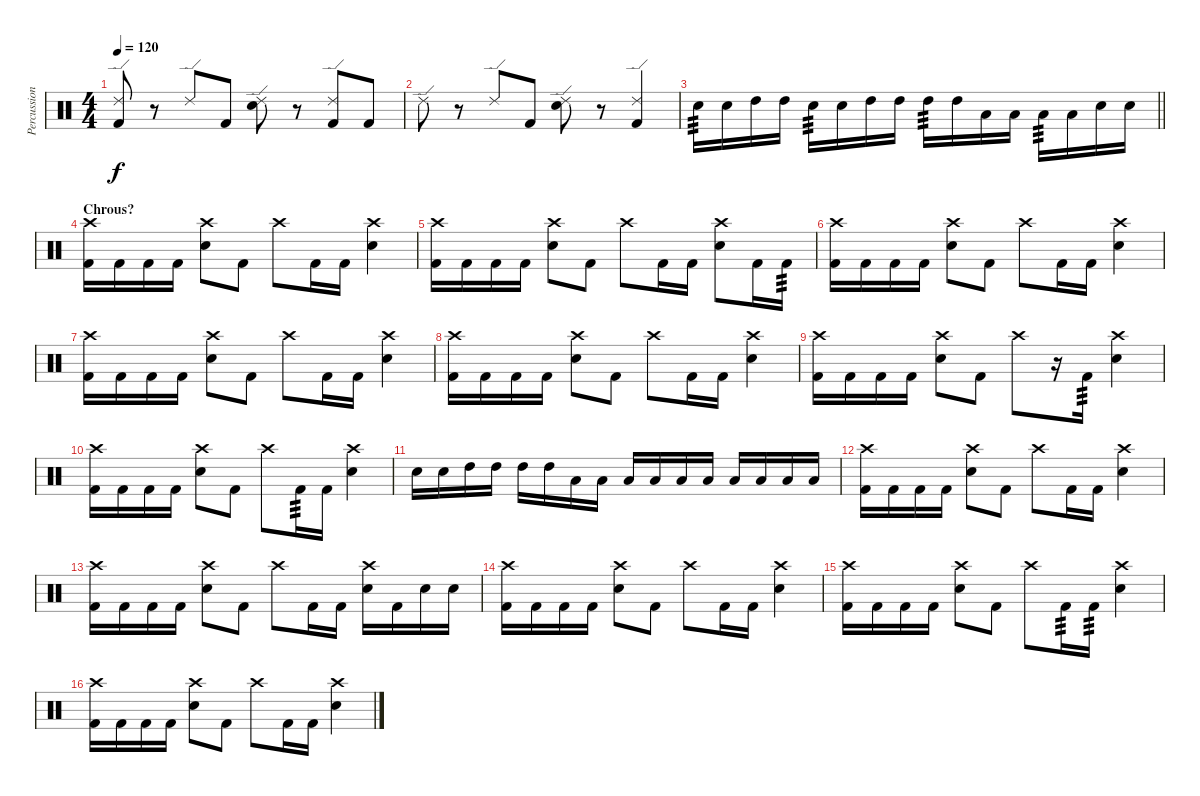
\track ("Percussion" "Percussion") {instrument percussion}
\staff {score}
\articulation defaults
\ts (4 4)
\tempo 120
\clef neutral
\ks c
("Ride (edge) 2" "Kick (hit) 2").8{dy f} r.8 "Ride (edge) 2".8 "Kick (hit) 2".8 ("Ride (edge) 2" "Electric Snare (hit)").8 r.8 ("Ride (edge) 2" "Kick (hit) 2").8 "Kick (hit) 2".8 |
"Ride (edge) 2".8 r.8 "Ride (edge) 2".8 "Kick (hit) 2".8 ("Ride (edge) 2" "Electric Snare (hit)").8 r.8 ("Ride (edge) 2" "Kick (hit) 2").4 |
\barLineRight lightlight "Electric Snare (hit)".16{tp 3} "Electric Snare (hit)".16 "High Tom (hit)".16 "High Tom (hit)".16 "Electric Snare (hit)".16{tp 3} "Electric Snare (hit)".16 "High Tom (hit)".16 "High Tom (hit)".16 "High Tom (hit)".16{tp 3} "High Tom (hit)".16 "Low Tom (hit)".16 "Low Tom (hit)".16 "Low Floor Tom (hit)".16{tp 3} "Low Floor Tom (hit)".16 "Electric Snare (hit)".16 "Electric Snare (hit)".16
|
\section ("" "Chrous?")
("Crash high (hit)" "Kick (hit) 2").16 "Kick (hit) 2".16 "Kick (hit) 2".16 "Kick (hit) 2".16 ("Crash high (hit)" "Electric Snare (hit)").8 "Kick (hit) 2".8 "Crash high (hit)".8 "Kick (hit) 2".16 "Kick (hit) 2".16 ("Crash high (hit)" "Electric Snare (hit)").4 |
("Crash high (hit)" "Kick (hit) 2").16 "Kick (hit) 2".16 "Kick (hit) 2".16 "Kick (hit) 2".16 ("Crash high (hit)" "Electric Snare (hit)").8 "Kick (hit) 2".8 "Crash high (hit)".8 "Kick (hit) 2".16 "Kick (hit) 2".16 ("Crash high (hit)" "Electric Snare (hit)").8 "Kick (hit) 2".16 "Kick (hit) 2".16{tp 3} |
("Crash high (hit)" "Kick (hit) 2").16 "Kick (hit) 2".16 "Kick (hit) 2".16 "Kick (hit) 2".16 ("Crash high (hit)" "Electric Snare (hit)").8 "Kick (hit) 2".8 "Crash high (hit)".8 "Kick (hit) 2".16 "Kick (hit) 2".16 ("Crash high (hit)" "Electric Snare (hit)").4 |
("Crash high (hit)" "Kick (hit) 2").16 "Kick (hit) 2".16 "Kick (hit) 2".16 "Kick (hit) 2".16 ("Crash high (hit)" "Electric Snare (hit)").8 "Kick (hit) 2".8 "Crash high (hit)".8 "Kick (hit) 2".16 "Kick (hit) 2".16 ("Crash high (hit)" "Electric Snare (hit)").4 |
("Crash high (hit)" "Kick (hit) 2").16 "Kick (hit) 2".16 "Kick (hit) 2".16 "Kick (hit) 2".16 ("Crash high (hit)" "Electric Snare (hit)").8 "Kick (hit) 2".8 "Crash high (hit)".8 "Kick (hit) 2".16 "Kick (hit) 2".16 ("Crash high (hit)" "Electric Snare (hit)").4 |
("Crash high (hit)" "Kick (hit) 2").16 "Kick (hit) 2".16 "Kick (hit) 2".16 "Kick (hit) 2".16 ("Crash high (hit)" "Electric Snare (hit)").8 "Kick (hit) 2".8 "Crash high (hit)".8 r.16 "Kick (hit) 2".16{tp 3} ("Crash high (hit)" "Electric Snare (hit)").4 |
("Crash high (hit)" "Kick (hit) 2").16 "Kick (hit) 2".16 "Kick (hit) 2".16 "Kick (hit) 2".16 ("Crash high (hit)" "Electric Snare (hit)").8 "Kick (hit) 2".8 "Crash high (hit)".8 "Kick (hit) 2".16{tp 3} "Kick (hit) 2".16 ("Crash high (hit)" "Electric Snare (hit)").4 |
"Electric Snare (hit)".16 "Electric Snare (hit)".16 "High Tom (hit)".16 "High Tom (hit)".16 "High Tom (hit)".16 "High Tom (hit)".16 "Low Tom (hit)".16 "Low Tom (hit)".16 "Low Tom (hit)".16 "Low Tom (hit)".16 "Low Floor Tom (hit)".16 "Low Floor Tom (hit)".16 "Low Floor Tom (hit)".16 "Low Floor Tom (hit)".16 "Low Floor Tom (hit)".16 "Low Floor Tom (hit)".16 |
("Crash high (hit)" "Kick (hit) 2").16 "Kick (hit) 2".16 "Kick (hit) 2".16 "Kick (hit) 2".16 ("Crash high (hit)" "Electric Snare (hit)").8 "Kick (hit) 2".8 "Crash high (hit)".8 "Kick (hit) 2".16 "Kick (hit) 2".16 ("Crash high (hit)" "Electric Snare (hit)").4 |
("Crash high (hit)" "Kick (hit) 2").16 "Kick (hit) 2".16 "Kick (hit) 2".16 "Kick (hit) 2".16 ("Crash high (hit)" "Electric Snare (hit)").8 "Kick (hit) 2".8 "Crash high (hit)".8 "Kick (hit) 2".16 "Kick (hit) 2".16 ("Crash high (hit)" "Electric Snare (hit)").16 "Kick (hit) 2".16 "Electric Snare (hit)".16 "Electric Snare (hit)".16 |
("Crash high (hit)" "Kick (hit) 2").16 "Kick (hit) 2".16 "Kick (hit) 2".16 "Kick (hit) 2".16 ("Crash high (hit)" "Electric Snare (hit)").8 "Kick (hit) 2".8 "Crash high (hit)".8 "Kick (hit) 2".16 "Kick (hit) 2".16 ("Crash high (hit)" "Electric Snare (hit)").4 |
("Crash high (hit)" "Kick (hit) 2").16 "Kick (hit) 2".16 "Kick (hit) 2".16 "Kick (hit) 2".16 ("Crash high (hit)" "Electric Snare (hit)").8 "Kick (hit) 2".8 "Crash high (hit)".8 "Kick (hit) 2".16{tp 3} "Kick (hit) 2".16{tp 3} ("Crash high (hit)" "Electric Snare (hit)").4 |
("Crash high (hit)" "Kick (hit) 2").16 "Kick (hit) 2".16 "Kick (hit) 2".16 "Kick (hit) 2".16 ("Crash high (hit)" "Electric Snare (hit)").8 "Kick (hit) 2".8 "Crash high (hit)".8 "Kick (hit) 2".16 "Kick (hit) 2".16 ("Crash high (hit)" "Electric Snare (hit)").4
